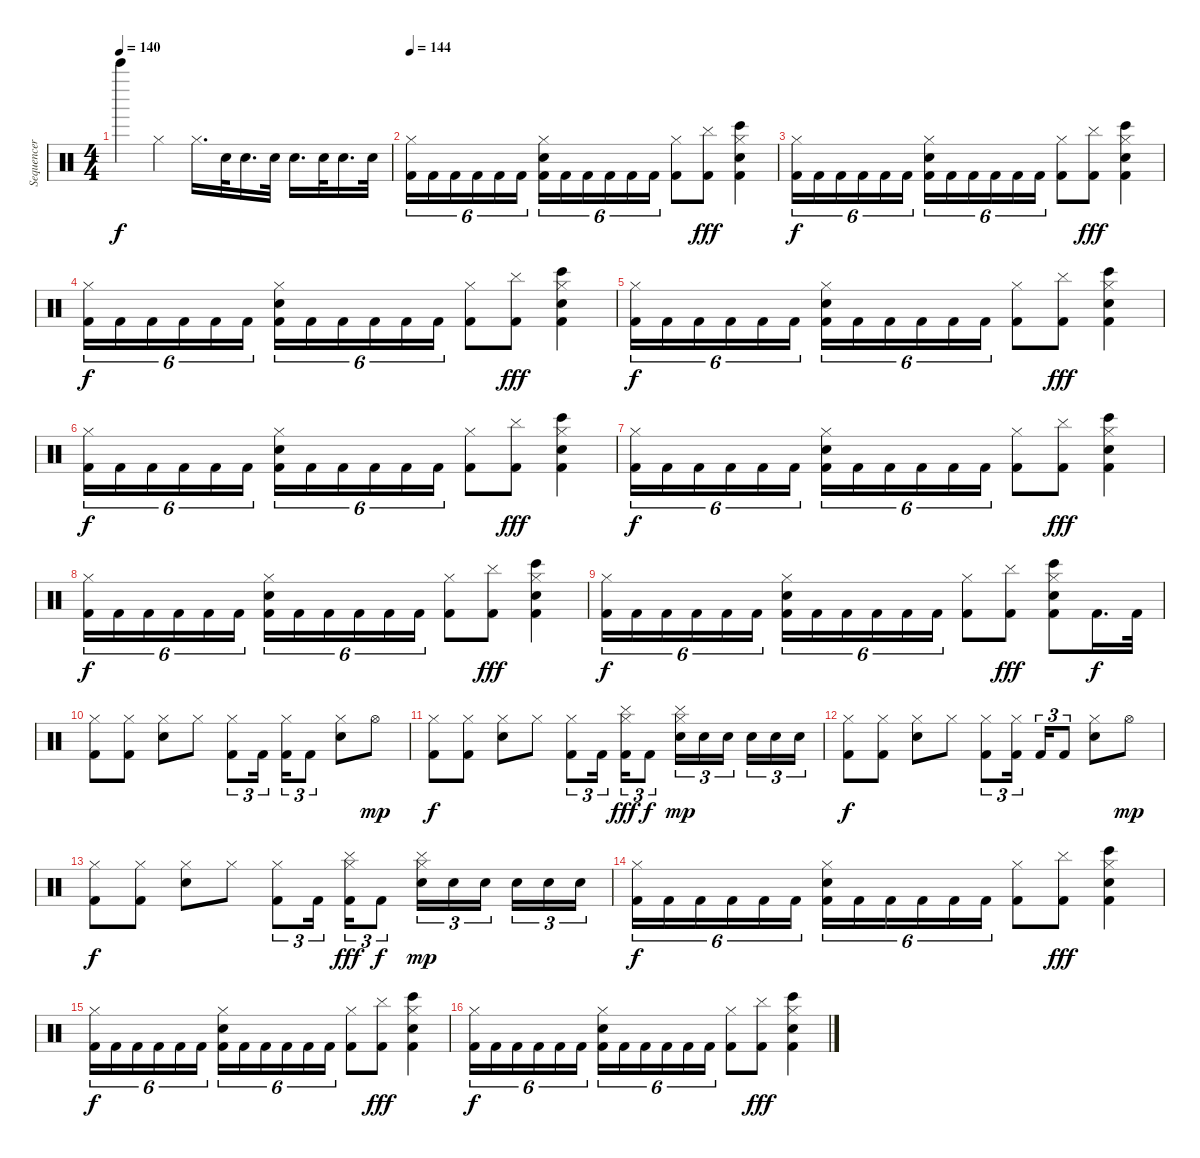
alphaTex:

\track ("Sequencer" "Sequencer") {instrument percussion}
\staff {score}
\articulation defaults
\ts (4 4)
\tempo 140
\clef neutral
\ks c "Bell Tree (hit)".4{dy f} "Hi-Hat (closed)".4 "Hi-Hat (closed)".16{d} "Electric Snare (hit)".32 "Electric Snare (hit)".16{d} "Electric Snare (hit)".32 "Electric Snare (hit)".16{d} "Electric Snare (hit)".32 "Electric Snare (hit)".16{d} "Electric Snare (hit)".32
|
\tempo 144
("Hi-Hat (closed)" "Kick (hit) 2").16{tu (6 4)} "Kick (hit) 2".16{tu (6 4)} "Kick (hit) 2".16{tu (6 4)} "Kick (hit) 2".16{tu (6 4)} "Kick (hit) 2".16{tu (6 4)} "Kick (hit) 2".16{tu (6 4)} ("Hi-Hat (closed)" "Electric Snare (hit)" "Kick (hit) 2").16{tu (6 4)} "Kick (hit) 2".16{tu (6 4)} "Kick (hit) 2".16{tu (6 4)} "Kick (hit) 2".16{tu (6 4)} "Kick (hit) 2".16{tu (6 4)} "Kick (hit) 2".16{tu (6 4)} ("Hi-Hat (closed)" "Kick (hit) 2").8 ("Cymbal (hit)" "Kick (hit) 2").8{dy fff} ("Hi-Hat (closed)" "Electric Snare (hit)" "Bongo High (hit)" "Kick (hit) 2").4 |
("Hi-Hat (closed)" "Kick (hit) 2").16{tu (6 4) dy f} "Kick (hit) 2".16{tu (6 4)} "Kick (hit) 2".16{tu (6 4)} "Kick (hit) 2".16{tu (6 4)} "Kick (hit) 2".16{tu (6 4)} "Kick (hit) 2".16{tu (6 4)} ("Hi-Hat (closed)" "Electric Snare (hit)" "Kick (hit) 2").16{tu (6 4)} "Kick (hit) 2".16{tu (6 4)} "Kick (hit) 2".16{tu (6 4)} "Kick (hit) 2".16{tu (6 4)} "Kick (hit) 2".16{tu (6 4)} "Kick (hit) 2".16{tu (6 4)} ("Hi-Hat (closed)" "Kick (hit) 2").8 ("Cymbal (hit)" "Kick (hit) 2").8{dy fff} ("Hi-Hat (closed)" "Electric Snare (hit)" "Bongo High (hit)" "Kick (hit) 2").4 |
("Hi-Hat (closed)" "Kick (hit) 2").16{tu (6 4) dy f} "Kick (hit) 2".16{tu (6 4)} "Kick (hit) 2".16{tu (6 4)} "Kick (hit) 2".16{tu (6 4)} "Kick (hit) 2".16{tu (6 4)} "Kick (hit) 2".16{tu (6 4)} ("Hi-Hat (closed)" "Electric Snare (hit)" "Kick (hit) 2").16{tu (6 4)} "Kick (hit) 2".16{tu (6 4)} "Kick (hit) 2".16{tu (6 4)} "Kick (hit) 2".16{tu (6 4)} "Kick (hit) 2".16{tu (6 4)} "Kick (hit) 2".16{tu (6 4)} ("Hi-Hat (closed)" "Kick (hit) 2").8 ("Cymbal (hit)" "Kick (hit) 2").8{dy fff} ("Hi-Hat (closed)" "Electric Snare (hit)" "Bongo High (hit)" "Kick (hit) 2").4 |
("Hi-Hat (closed)" "Kick (hit) 2").16{tu (6 4) dy f} "Kick (hit) 2".16{tu (6 4)} "Kick (hit) 2".16{tu (6 4)} "Kick (hit) 2".16{tu (6 4)} "Kick (hit) 2".16{tu (6 4)} "Kick (hit) 2".16{tu (6 4)} ("Hi-Hat (closed)" "Electric Snare (hit)" "Kick (hit) 2").16{tu (6 4)} "Kick (hit) 2".16{tu (6 4)} "Kick (hit) 2".16{tu (6 4)} "Kick (hit) 2".16{tu (6 4)} "Kick (hit) 2".16{tu (6 4)} "Kick (hit) 2".16{tu (6 4)} ("Hi-Hat (closed)" "Kick (hit) 2").8 ("Cymbal (hit)" "Kick (hit) 2").8{dy fff} ("Hi-Hat (closed)" "Electric Snare (hit)" "Bongo High (hit)" "Kick (hit) 2").4 |
("Hi-Hat (closed)" "Kick (hit) 2").16{tu (6 4) dy f} "Kick (hit) 2".16{tu (6 4)} "Kick (hit) 2".16{tu (6 4)} "Kick (hit) 2".16{tu (6 4)} "Kick (hit) 2".16{tu (6 4)} "Kick (hit) 2".16{tu (6 4)} ("Hi-Hat (closed)" "Electric Snare (hit)" "Kick (hit) 2").16{tu (6 4)} "Kick (hit) 2".16{tu (6 4)} "Kick (hit) 2".16{tu (6 4)} "Kick (hit) 2".16{tu (6 4)} "Kick (hit) 2".16{tu (6 4)} "Kick (hit) 2".16{tu (6 4)} ("Hi-Hat (closed)" "Kick (hit) 2").8 ("Cymbal (hit)" "Kick (hit) 2").8{dy fff} ("Hi-Hat (closed)" "Electric Snare (hit)" "Bongo High (hit)" "Kick (hit) 2").4 |
("Hi-Hat (closed)" "Kick (hit) 2").16{tu (6 4) dy f} "Kick (hit) 2".16{tu (6 4)} "Kick (hit) 2".16{tu (6 4)} "Kick (hit) 2".16{tu (6 4)} "Kick (hit) 2".16{tu (6 4)} "Kick (hit) 2".16{tu (6 4)} ("Hi-Hat (closed)" "Electric Snare (hit)" "Kick (hit) 2").16{tu (6 4)} "Kick (hit) 2".16{tu (6 4)} "Kick (hit) 2".16{tu (6 4)} "Kick (hit) 2".16{tu (6 4)} "Kick (hit) 2".16{tu (6 4)} "Kick (hit) 2".16{tu (6 4)} ("Hi-Hat (closed)" "Kick (hit) 2").8 ("Cymbal (hit)" "Kick (hit) 2").8{dy fff} ("Hi-Hat (closed)" "Electric Snare (hit)" "Bongo High (hit)" "Kick (hit) 2").4 |
("Hi-Hat (closed)" "Kick (hit) 2").16{tu (6 4) dy f} "Kick (hit) 2".16{tu (6 4)} "Kick (hit) 2".16{tu (6 4)} "Kick (hit) 2".16{tu (6 4)} "Kick (hit) 2".16{tu (6 4)} "Kick (hit) 2".16{tu (6 4)} ("Hi-Hat (closed)" "Electric Snare (hit)" "Kick (hit) 2").16{tu (6 4)} "Kick (hit) 2".16{tu (6 4)} "Kick (hit) 2".16{tu (6 4)} "Kick (hit) 2".16{tu (6 4)} "Kick (hit) 2".16{tu (6 4)} "Kick (hit) 2".16{tu (6 4)} ("Hi-Hat (closed)" "Kick (hit) 2").8 ("Cymbal (hit)" "Kick (hit) 2").8{dy fff} ("Hi-Hat (closed)" "Electric Snare (hit)" "Bongo High (hit)" "Kick (hit) 2").4 |
("Hi-Hat (closed)" "Kick (hit) 2").16{tu (6 4) dy f} "Kick (hit) 2".16{tu (6 4)} "Kick (hit) 2".16{tu (6 4)} "Kick (hit) 2".16{tu (6 4)} "Kick (hit) 2".16{tu (6 4)} "Kick (hit) 2".16{tu (6 4)} ("Hi-Hat (closed)" "Electric Snare (hit)" "Kick (hit) 2").16{tu (6 4)} "Kick (hit) 2".16{tu (6 4)} "Kick (hit) 2".16{tu (6 4)} "Kick (hit) 2".16{tu (6 4)} "Kick (hit) 2".16{tu (6 4)} "Kick (hit) 2".16{tu (6 4)} ("Hi-Hat (closed)" "Kick (hit) 2").8 ("Cymbal (hit)" "Kick (hit) 2").8{dy fff} ("Hi-Hat (closed)" "Electric Snare (hit)" "Bongo High (hit)" "Kick (hit) 2").8 "Kick (hit) 2".16{d dy f} "Kick (hit) 2".32 |
("Hi-Hat (closed)" "Kick (hit) 2").8 ("Hi-Hat (closed)" "Kick (hit) 2").8 ("Hi-Hat (closed)" "Electric Snare (hit)").8 "Hi-Hat (closed)".8 ("Hi-Hat (closed)" "Kick (hit) 2").8{tu (3 2)} "Kick (hit) 2".16{tu (3 2)} ("Hi-Hat (closed)" "Kick (hit) 2").16{tu (3 2)} "Kick (hit) 2".8{tu (3 2)} ("Hi-Hat (closed)" "Electric Snare (hit)").8 "Hi-Hat (open)".8{dy mp} |
("Hi-Hat (closed)" "Kick (hit) 2").8{dy f} ("Hi-Hat (closed)" "Kick (hit) 2").8 ("Hi-Hat (closed)" "Electric Snare (hit)").8 "Hi-Hat (closed)".8 ("Hi-Hat (closed)" "Kick (hit) 2").8{tu (3 2)} "Kick (hit) 2".16{tu (3 2)} ("Hi-Hat (closed)" "Cymbal (hit)" "Kick (hit) 2").16{tu (3 2) dy fff} "Kick (hit) 2".8{tu (3 2) dy f} ("Hi-Hat (closed)" "Cymbal (hit)" "Electric Snare (hit)").16{tu (3 2) dy mp} "Electric Snare (hit)".16{tu (3 2)} "Electric Snare (hit)".16{tu (3 2)} "Electric Snare (hit)".16{tu (3 2)} "Electric Snare (hit)".16{tu (3 2)} "Electric Snare (hit)".16{tu (3 2)} |
("Hi-Hat (closed)" "Kick (hit) 2").8{dy f} ("Hi-Hat (closed)" "Kick (hit) 2").8 ("Hi-Hat (closed)" "Electric Snare (hit)").8 "Hi-Hat (closed)".8 ("Hi-Hat (closed)" "Kick (hit) 2").8{tu (3 2)} ("Hi-Hat (closed)" "Kick (hit) 2").16{tu (3 2)} "Kick (hit) 2".16{tu (3 2)} "Kick (hit) 2".8{tu (3 2)} ("Hi-Hat (closed)" "Electric Snare (hit)").8 "Hi-Hat (open)".8{dy mp} |
("Hi-Hat (closed)" "Kick (hit) 2").8{dy f} ("Hi-Hat (closed)" "Kick (hit) 2").8 ("Hi-Hat (closed)" "Electric Snare (hit)").8 "Hi-Hat (closed)".8 ("Hi-Hat (closed)" "Kick (hit) 2").8{tu (3 2)} "Kick (hit) 2".16{tu (3 2)} ("Hi-Hat (closed)" "Cymbal (hit)" "Kick (hit) 2").16{tu (3 2) dy fff} "Kick (hit) 2".8{tu (3 2) dy f} ("Hi-Hat (closed)" "Cymbal (hit)" "Electric Snare (hit)").16{tu (3 2) dy mp} "Electric Snare (hit)".16{tu (3 2)} "Electric Snare (hit)".16{tu (3 2)} "Electric Snare (hit)".16{tu (3 2)} "Electric Snare (hit)".16{tu (3 2)} "Electric Snare (hit)".16{tu (3 2)} |
("Hi-Hat (closed)" "Kick (hit) 2").16{tu (6 4) dy f} "Kick (hit) 2".16{tu (6 4)} "Kick (hit) 2".16{tu (6 4)} "Kick (hit) 2".16{tu (6 4)} "Kick (hit) 2".16{tu (6 4)} "Kick (hit) 2".16{tu (6 4)} ("Hi-Hat (closed)" "Electric Snare (hit)" "Kick (hit) 2").16{tu (6 4)} "Kick (hit) 2".16{tu (6 4)} "Kick (hit) 2".16{tu (6 4)} "Kick (hit) 2".16{tu (6 4)} "Kick (hit) 2".16{tu (6 4)} "Kick (hit) 2".16{tu (6 4)} ("Hi-Hat (closed)" "Kick (hit) 2").8 ("Cymbal (hit)" "Kick (hit) 2").8{dy fff} ("Hi-Hat (closed)" "Electric Snare (hit)" "Bongo High (hit)" "Kick (hit) 2").4 |
("Hi-Hat (closed)" "Kick (hit) 2").16{tu (6 4) dy f} "Kick (hit) 2".16{tu (6 4)} "Kick (hit) 2".16{tu (6 4)} "Kick (hit) 2".16{tu (6 4)} "Kick (hit) 2".16{tu (6 4)} "Kick (hit) 2".16{tu (6 4)} ("Hi-Hat (closed)" "Electric Snare (hit)" "Kick (hit) 2").16{tu (6 4)} "Kick (hit) 2".16{tu (6 4)} "Kick (hit) 2".16{tu (6 4)} "Kick (hit) 2".16{tu (6 4)} "Kick (hit) 2".16{tu (6 4)} "Kick (hit) 2".16{tu (6 4)} ("Hi-Hat (closed)" "Kick (hit) 2").8 ("Cymbal (hit)" "Kick (hit) 2").8{dy fff} ("Hi-Hat (closed)" "Electric Snare (hit)" "Bongo High (hit)" "Kick (hit) 2").4 |
("Hi-Hat (closed)" "Kick (hit) 2").16{tu (6 4) dy f} "Kick (hit) 2".16{tu (6 4)} "Kick (hit) 2".16{tu (6 4)} "Kick (hit) 2".16{tu (6 4)} "Kick (hit) 2".16{tu (6 4)} "Kick (hit) 2".16{tu (6 4)} ("Hi-Hat (closed)" "Electric Snare (hit)" "Kick (hit) 2").16{tu (6 4)} "Kick (hit) 2".16{tu (6 4)} "Kick (hit) 2".16{tu (6 4)} "Kick (hit) 2".16{tu (6 4)} "Kick (hit) 2".16{tu (6 4)} "Kick (hit) 2".16{tu (6 4)} ("Hi-Hat (closed)" "Kick (hit) 2").8 ("Cymbal (hit)" "Kick (hit) 2").8{dy fff} ("Hi-Hat (closed)" "Electric Snare (hit)" "Bongo High (hit)" "Kick (hit) 2").4
